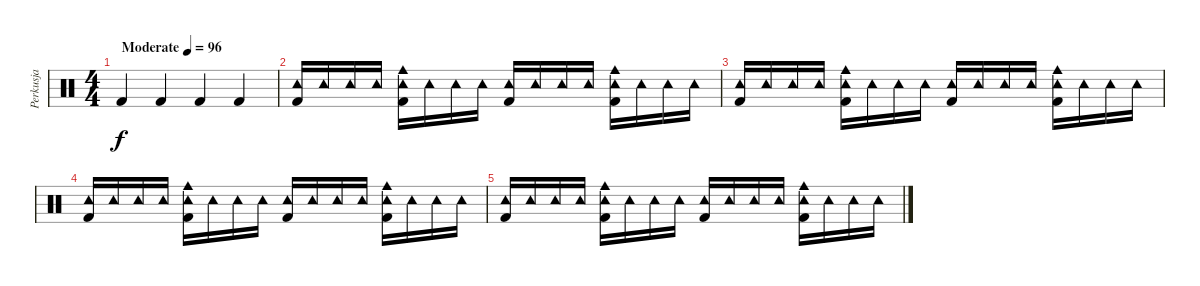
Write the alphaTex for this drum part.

\track ("Perkusja" "Perkusja") {instrument percussion}
\staff {score}
\articulation defaults
\ts (4 4)
\tempo (96 "Moderate")
\clef neutral
\ks c "Kick (hit) 2".4{dy f} "Kick (hit) 2".4 "Kick (hit) 2".4 "Kick (hit) 2".4
|
("Tambourine (hit)" "Kick (hit) 2").16 "Tambourine (hit)".16 "Tambourine (hit)".16 "Tambourine (hit)".16 ("Tambourine (hit)" "Cowbell medium (hit)" "Kick (hit) 2").16 "Tambourine (hit)".16 "Tambourine (hit)".16 "Tambourine (hit)".16 ("Tambourine (hit)" "Kick (hit) 2").16 "Tambourine (hit)".16 "Tambourine (hit)".16 "Tambourine (hit)".16 ("Tambourine (hit)" "Cowbell medium (hit)" "Kick (hit) 2").16 "Tambourine (hit)".16 "Tambourine (hit)".16 "Tambourine (hit)".16 |
("Tambourine (hit)" "Kick (hit) 2").16 "Tambourine (hit)".16 "Tambourine (hit)".16 "Tambourine (hit)".16 ("Tambourine (hit)" "Cowbell medium (hit)" "Kick (hit) 2").16 "Tambourine (hit)".16 "Tambourine (hit)".16 "Tambourine (hit)".16 ("Tambourine (hit)" "Kick (hit) 2").16 "Tambourine (hit)".16 "Tambourine (hit)".16 "Tambourine (hit)".16 ("Tambourine (hit)" "Cowbell medium (hit)" "Kick (hit) 2").16 "Tambourine (hit)".16 "Tambourine (hit)".16 "Tambourine (hit)".16 |
("Tambourine (hit)" "Kick (hit) 2").16 "Tambourine (hit)".16 "Tambourine (hit)".16 "Tambourine (hit)".16 ("Tambourine (hit)" "Cowbell medium (hit)" "Kick (hit) 2").16 "Tambourine (hit)".16 "Tambourine (hit)".16 "Tambourine (hit)".16 ("Tambourine (hit)" "Kick (hit) 2").16 "Tambourine (hit)".16 "Tambourine (hit)".16 "Tambourine (hit)".16 ("Tambourine (hit)" "Cowbell medium (hit)" "Kick (hit) 2").16 "Tambourine (hit)".16 "Tambourine (hit)".16 "Tambourine (hit)".16 |
("Tambourine (hit)" "Kick (hit) 2").16 "Tambourine (hit)".16 "Tambourine (hit)".16 "Tambourine (hit)".16 ("Tambourine (hit)" "Cowbell medium (hit)" "Kick (hit) 2").16 "Tambourine (hit)".16 "Tambourine (hit)".16 "Tambourine (hit)".16 ("Tambourine (hit)" "Kick (hit) 2").16 "Tambourine (hit)".16 "Tambourine (hit)".16 "Tambourine (hit)".16 ("Tambourine (hit)" "Cowbell medium (hit)" "Kick (hit) 2").16 "Tambourine (hit)".16 "Tambourine (hit)".16 "Tambourine (hit)".16
